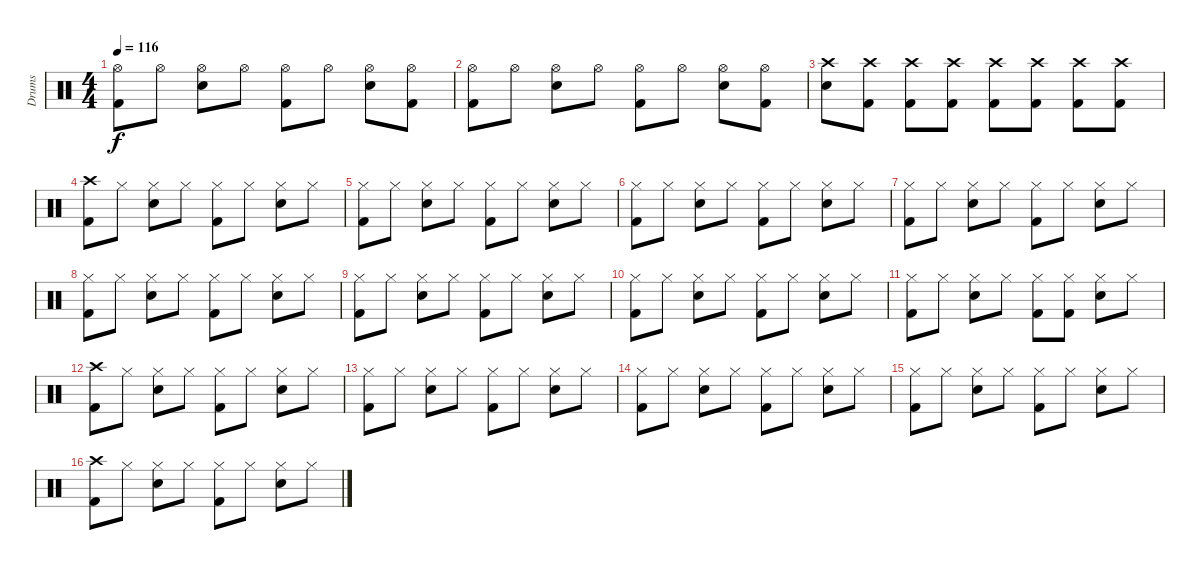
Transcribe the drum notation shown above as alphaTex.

\track ("Drums" "Drums") {instrument percussion}
\staff {score}
\articulation defaults
\ts (4 4)
\tempo 116
\clef neutral
\ks c
("Hi-Hat (open)" "Kick (hit) 2").8{dy f} "Hi-Hat (open)".8 ("Hi-Hat (open)" "Snare (hit) 2").8 "Hi-Hat (open)".8 ("Hi-Hat (open)" "Kick (hit) 2").8 "Hi-Hat (open)".8 ("Hi-Hat (open)" "Snare (hit) 2").8 ("Hi-Hat (open)" "Kick (hit) 2").8 |
("Hi-Hat (open)" "Kick (hit) 2").8 "Hi-Hat (open)".8 ("Hi-Hat (open)" "Snare (hit) 2").8 "Hi-Hat (open)".8 ("Hi-Hat (open)" "Kick (hit) 2").8 "Hi-Hat (open)".8 ("Hi-Hat (open)" "Snare (hit) 2").8 ("Hi-Hat (open)" "Kick (hit) 2").8 |
("Crash high (hit)" "Snare (hit) 2").8 ("Crash high (hit)" "Kick (hit) 2").8 ("Crash high (hit)" "Kick (hit) 2").8 ("Crash high (hit)" "Kick (hit) 2").8 ("Crash high (hit)" "Kick (hit) 2").8 ("Crash high (hit)" "Kick (hit) 2").8 ("Crash high (hit)" "Kick (hit) 2").8 ("Crash high (hit)" "Kick (hit) 2").8 |
("Crash high (hit)" "Kick (hit) 2").8 "Hi-Hat (closed)".8 ("Hi-Hat (closed)" "Snare (hit) 2").8 "Hi-Hat (closed)".8 ("Hi-Hat (closed)" "Kick (hit) 2").8 "Hi-Hat (closed)".8 ("Hi-Hat (closed)" "Snare (hit) 2").8 "Hi-Hat (closed)".8 |
("Hi-Hat (closed)" "Kick (hit) 2").8 "Hi-Hat (closed)".8 ("Hi-Hat (closed)" "Snare (hit) 2").8 "Hi-Hat (closed)".8 ("Hi-Hat (closed)" "Kick (hit) 2").8 "Hi-Hat (closed)".8 ("Hi-Hat (closed)" "Snare (hit) 2").8 "Hi-Hat (closed)".8 |
("Hi-Hat (closed)" "Kick (hit) 2").8 "Hi-Hat (closed)".8 ("Hi-Hat (closed)" "Snare (hit) 2").8 "Hi-Hat (closed)".8 ("Hi-Hat (closed)" "Kick (hit) 2").8 "Hi-Hat (closed)".8 ("Hi-Hat (closed)" "Snare (hit) 2").8 "Hi-Hat (closed)".8 |
("Hi-Hat (closed)" "Kick (hit) 2").8 "Hi-Hat (closed)".8 ("Hi-Hat (closed)" "Snare (hit) 2").8 "Hi-Hat (closed)".8 ("Hi-Hat (closed)" "Kick (hit) 2").8 "Hi-Hat (closed)".8 ("Hi-Hat (closed)" "Snare (hit) 2").8 "Hi-Hat (closed)".8 |
("Hi-Hat (closed)" "Kick (hit) 2").8 "Hi-Hat (closed)".8 ("Hi-Hat (closed)" "Snare (hit) 2").8 "Hi-Hat (closed)".8 ("Hi-Hat (closed)" "Kick (hit) 2").8 "Hi-Hat (closed)".8 ("Hi-Hat (closed)" "Snare (hit) 2").8 "Hi-Hat (closed)".8 |
("Hi-Hat (closed)" "Kick (hit) 2").8 "Hi-Hat (closed)".8 ("Hi-Hat (closed)" "Snare (hit) 2").8 "Hi-Hat (closed)".8 ("Hi-Hat (closed)" "Kick (hit) 2").8 "Hi-Hat (closed)".8 ("Hi-Hat (closed)" "Snare (hit) 2").8 "Hi-Hat (closed)".8 |
("Hi-Hat (closed)" "Kick (hit) 2").8 "Hi-Hat (closed)".8 ("Hi-Hat (closed)" "Snare (hit) 2").8 "Hi-Hat (closed)".8 ("Hi-Hat (closed)" "Kick (hit) 2").8 "Hi-Hat (closed)".8 ("Hi-Hat (closed)" "Snare (hit) 2").8 "Hi-Hat (closed)".8 |
("Hi-Hat (closed)" "Kick (hit) 2").8 "Hi-Hat (closed)".8 ("Hi-Hat (closed)" "Snare (hit) 2").8 "Hi-Hat (closed)".8 ("Hi-Hat (closed)" "Kick (hit) 2").8 ("Hi-Hat (closed)" "Kick (hit) 2").8 ("Hi-Hat (closed)" "Snare (hit) 2").8 "Hi-Hat (closed)".8 |
("Crash high (hit)" "Kick (hit) 2").8 "Hi-Hat (closed)".8 ("Hi-Hat (closed)" "Snare (hit) 2").8 "Hi-Hat (closed)".8 ("Hi-Hat (closed)" "Kick (hit) 2").8 "Hi-Hat (closed)".8 ("Hi-Hat (closed)" "Snare (hit) 2").8 "Hi-Hat (closed)".8 |
("Hi-Hat (closed)" "Kick (hit) 2").8 "Hi-Hat (closed)".8 ("Hi-Hat (closed)" "Snare (hit) 2").8 "Hi-Hat (closed)".8 ("Hi-Hat (closed)" "Kick (hit) 2").8 "Hi-Hat (closed)".8 ("Hi-Hat (closed)" "Snare (hit) 2").8 "Hi-Hat (closed)".8 |
("Hi-Hat (closed)" "Kick (hit) 2").8 "Hi-Hat (closed)".8 ("Hi-Hat (closed)" "Snare (hit) 2").8 "Hi-Hat (closed)".8 ("Hi-Hat (closed)" "Kick (hit) 2").8 "Hi-Hat (closed)".8 ("Hi-Hat (closed)" "Snare (hit) 2").8 "Hi-Hat (closed)".8 |
("Hi-Hat (closed)" "Kick (hit) 2").8 "Hi-Hat (closed)".8 ("Hi-Hat (closed)" "Snare (hit) 2").8 "Hi-Hat (closed)".8 ("Hi-Hat (closed)" "Kick (hit) 2").8 "Hi-Hat (closed)".8 ("Hi-Hat (closed)" "Snare (hit) 2").8 "Hi-Hat (closed)".8 |
("Crash high (hit)" "Kick (hit) 2").8 "Hi-Hat (closed)".8 ("Hi-Hat (closed)" "Snare (hit) 2").8 "Hi-Hat (closed)".8 ("Hi-Hat (closed)" "Kick (hit) 2").8 "Hi-Hat (closed)".8 ("Hi-Hat (closed)" "Snare (hit) 2").8 "Hi-Hat (closed)".8
